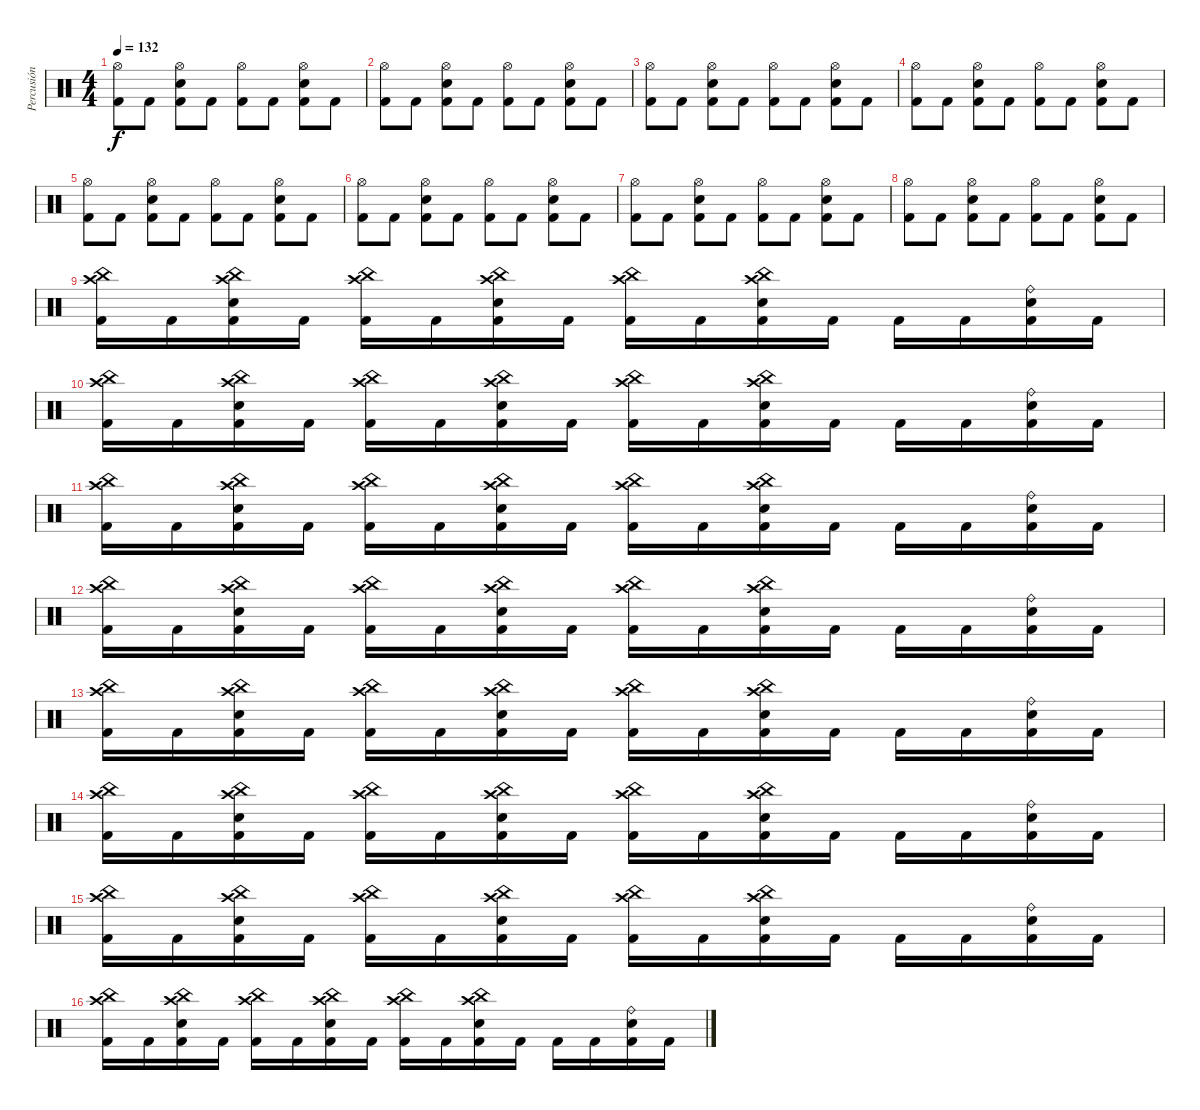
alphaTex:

\track ("Percusión" "Percusión") {instrument percussion}
\staff {score}
\articulation defaults
\ts (4 4)
\tempo 132
\clef neutral
\ks c
("Hi-Hat (open)" "Kick (hit) 2").8{dy f} "Kick (hit) 2".8 ("Hi-Hat (open)" "Electric Snare (hit)" "Kick (hit) 2").8 "Kick (hit) 2".8 ("Hi-Hat (open)" "Kick (hit) 2").8 "Kick (hit) 2".8 ("Hi-Hat (open)" "Electric Snare (hit)" "Kick (hit) 2").8 "Kick (hit) 2".8 |
("Hi-Hat (open)" "Kick (hit) 2").8 "Kick (hit) 2".8 ("Hi-Hat (open)" "Electric Snare (hit)" "Kick (hit) 2").8 "Kick (hit) 2".8 ("Hi-Hat (open)" "Kick (hit) 2").8 "Kick (hit) 2".8 ("Hi-Hat (open)" "Electric Snare (hit)" "Kick (hit) 2").8 "Kick (hit) 2".8 |
("Hi-Hat (open)" "Kick (hit) 2").8 "Kick (hit) 2".8 ("Hi-Hat (open)" "Electric Snare (hit)" "Kick (hit) 2").8 "Kick (hit) 2".8 ("Hi-Hat (open)" "Kick (hit) 2").8 "Kick (hit) 2".8 ("Hi-Hat (open)" "Electric Snare (hit)" "Kick (hit) 2").8 "Kick (hit) 2".8 |
("Hi-Hat (open)" "Kick (hit) 2").8 "Kick (hit) 2".8 ("Hi-Hat (open)" "Electric Snare (hit)" "Kick (hit) 2").8 "Kick (hit) 2".8 ("Hi-Hat (open)" "Kick (hit) 2").8 "Kick (hit) 2".8 ("Hi-Hat (open)" "Electric Snare (hit)" "Kick (hit) 2").8 "Kick (hit) 2".8 |
("Hi-Hat (open)" "Kick (hit) 2").8 "Kick (hit) 2".8 ("Hi-Hat (open)" "Electric Snare (hit)" "Kick (hit) 2").8 "Kick (hit) 2".8 ("Hi-Hat (open)" "Kick (hit) 2").8 "Kick (hit) 2".8 ("Hi-Hat (open)" "Electric Snare (hit)" "Kick (hit) 2").8 "Kick (hit) 2".8 |
("Hi-Hat (open)" "Kick (hit) 2").8 "Kick (hit) 2".8 ("Hi-Hat (open)" "Electric Snare (hit)" "Kick (hit) 2").8 "Kick (hit) 2".8 ("Hi-Hat (open)" "Kick (hit) 2").8 "Kick (hit) 2".8 ("Hi-Hat (open)" "Electric Snare (hit)" "Kick (hit) 2").8 "Kick (hit) 2".8 |
("Hi-Hat (open)" "Kick (hit) 2").8 "Kick (hit) 2".8 ("Hi-Hat (open)" "Electric Snare (hit)" "Kick (hit) 2").8 "Kick (hit) 2".8 ("Hi-Hat (open)" "Kick (hit) 2").8 "Kick (hit) 2".8 ("Hi-Hat (open)" "Electric Snare (hit)" "Kick (hit) 2").8 "Kick (hit) 2".8 |
("Hi-Hat (open)" "Kick (hit) 2").8 "Kick (hit) 2".8 ("Hi-Hat (open)" "Electric Snare (hit)" "Kick (hit) 2").8 "Kick (hit) 2".8 ("Hi-Hat (open)" "Kick (hit) 2").8 "Kick (hit) 2".8 ("Hi-Hat (open)" "Electric Snare (hit)" "Kick (hit) 2").8 "Kick (hit) 2".8 |
("China (hit)" "Crash high (hit)" "Kick (hit) 2").16 "Kick (hit) 2".16 ("Crash high (hit)" "China (hit)" "Electric Snare (hit)" "Kick (hit) 2").16 "Kick (hit) 2".16 ("Crash high (hit)" "China (hit)" "Kick (hit) 2").16 "Kick (hit) 2".16 ("Crash high (hit)" "China (hit)" "Electric Snare (hit)" "Kick (hit) 2").16 "Kick (hit) 2".16 ("Crash high (hit)" "China (hit)" "Kick (hit) 2").16 "Kick (hit) 2".16 ("Crash high (hit)" "China (hit)" "Electric Snare (hit)" "Kick (hit) 2").16 "Kick (hit) 2".16 "Kick (hit) 2".16 "Kick (hit) 2".16 ("Ride (bell)" "Electric Snare (hit)" "Kick (hit) 2").16 "Kick (hit) 2".16 |
("Crash high (hit)" "China (hit)" "Kick (hit) 2").16 "Kick (hit) 2".16 ("Crash high (hit)" "China (hit)" "Electric Snare (hit)" "Kick (hit) 2").16 "Kick (hit) 2".16 ("Crash high (hit)" "China (hit)" "Kick (hit) 2").16 "Kick (hit) 2".16 ("Crash high (hit)" "China (hit)" "Electric Snare (hit)" "Kick (hit) 2").16 "Kick (hit) 2".16 ("Crash high (hit)" "China (hit)" "Kick (hit) 2").16 "Kick (hit) 2".16 ("Crash high (hit)" "China (hit)" "Electric Snare (hit)" "Kick (hit) 2").16 "Kick (hit) 2".16 "Kick (hit) 2".16 "Kick (hit) 2".16 ("Ride (bell)" "Electric Snare (hit)" "Kick (hit) 2").16 "Kick (hit) 2".16 |
("Crash high (hit)" "China (hit)" "Kick (hit) 2").16 "Kick (hit) 2".16 ("Crash high (hit)" "China (hit)" "Electric Snare (hit)" "Kick (hit) 2").16 "Kick (hit) 2".16 ("Crash high (hit)" "China (hit)" "Kick (hit) 2").16 "Kick (hit) 2".16 ("Crash high (hit)" "China (hit)" "Electric Snare (hit)" "Kick (hit) 2").16 "Kick (hit) 2".16 ("Crash high (hit)" "China (hit)" "Kick (hit) 2").16 "Kick (hit) 2".16 ("Crash high (hit)" "China (hit)" "Electric Snare (hit)" "Kick (hit) 2").16 "Kick (hit) 2".16 "Kick (hit) 2".16 "Kick (hit) 2".16 ("Ride (bell)" "Electric Snare (hit)" "Kick (hit) 2").16 "Kick (hit) 2".16 |
("Crash high (hit)" "China (hit)" "Kick (hit) 2").16 "Kick (hit) 2".16 ("Crash high (hit)" "China (hit)" "Electric Snare (hit)" "Kick (hit) 2").16 "Kick (hit) 2".16 ("Crash high (hit)" "China (hit)" "Kick (hit) 2").16 "Kick (hit) 2".16 ("Crash high (hit)" "China (hit)" "Electric Snare (hit)" "Kick (hit) 2").16 "Kick (hit) 2".16 ("Crash high (hit)" "China (hit)" "Kick (hit) 2").16 "Kick (hit) 2".16 ("Crash high (hit)" "China (hit)" "Electric Snare (hit)" "Kick (hit) 2").16 "Kick (hit) 2".16 "Kick (hit) 2".16 "Kick (hit) 2".16 ("Ride (bell)" "Electric Snare (hit)" "Kick (hit) 2").16 "Kick (hit) 2".16 |
("Crash high (hit)" "China (hit)" "Kick (hit) 2").16 "Kick (hit) 2".16 ("Crash high (hit)" "China (hit)" "Electric Snare (hit)" "Kick (hit) 2").16 "Kick (hit) 2".16 ("Crash high (hit)" "China (hit)" "Kick (hit) 2").16 "Kick (hit) 2".16 ("Crash high (hit)" "China (hit)" "Electric Snare (hit)" "Kick (hit) 2").16 "Kick (hit) 2".16 ("Crash high (hit)" "China (hit)" "Kick (hit) 2").16 "Kick (hit) 2".16 ("Crash high (hit)" "China (hit)" "Electric Snare (hit)" "Kick (hit) 2").16 "Kick (hit) 2".16 "Kick (hit) 2".16 "Kick (hit) 2".16 ("Ride (bell)" "Electric Snare (hit)" "Kick (hit) 2").16 "Kick (hit) 2".16 |
("Crash high (hit)" "China (hit)" "Kick (hit) 2").16 "Kick (hit) 2".16 ("Crash high (hit)" "China (hit)" "Electric Snare (hit)" "Kick (hit) 2").16 "Kick (hit) 2".16 ("Crash high (hit)" "China (hit)" "Kick (hit) 2").16 "Kick (hit) 2".16 ("Crash high (hit)" "China (hit)" "Electric Snare (hit)" "Kick (hit) 2").16 "Kick (hit) 2".16 ("Crash high (hit)" "China (hit)" "Kick (hit) 2").16 "Kick (hit) 2".16 ("Crash high (hit)" "China (hit)" "Electric Snare (hit)" "Kick (hit) 2").16 "Kick (hit) 2".16 "Kick (hit) 2".16 "Kick (hit) 2".16 ("Ride (bell)" "Electric Snare (hit)" "Kick (hit) 2").16 "Kick (hit) 2".16 |
("Crash high (hit)" "China (hit)" "Kick (hit) 2").16 "Kick (hit) 2".16 ("Crash high (hit)" "China (hit)" "Electric Snare (hit)" "Kick (hit) 2").16 "Kick (hit) 2".16 ("Crash high (hit)" "China (hit)" "Kick (hit) 2").16 "Kick (hit) 2".16 ("Crash high (hit)" "China (hit)" "Electric Snare (hit)" "Kick (hit) 2").16 "Kick (hit) 2".16 ("Crash high (hit)" "China (hit)" "Kick (hit) 2").16 "Kick (hit) 2".16 ("Crash high (hit)" "China (hit)" "Electric Snare (hit)" "Kick (hit) 2").16 "Kick (hit) 2".16 "Kick (hit) 2".16 "Kick (hit) 2".16 ("Ride (bell)" "Electric Snare (hit)" "Kick (hit) 2").16 "Kick (hit) 2".16 |
("Crash high (hit)" "China (hit)" "Kick (hit) 2").16 "Kick (hit) 2".16 ("Crash high (hit)" "China (hit)" "Electric Snare (hit)" "Kick (hit) 2").16 "Kick (hit) 2".16 ("Crash high (hit)" "China (hit)" "Kick (hit) 2").16 "Kick (hit) 2".16 ("Crash high (hit)" "China (hit)" "Electric Snare (hit)" "Kick (hit) 2").16 "Kick (hit) 2".16 ("Crash high (hit)" "China (hit)" "Kick (hit) 2").16 "Kick (hit) 2".16 ("Crash high (hit)" "China (hit)" "Electric Snare (hit)" "Kick (hit) 2").16 "Kick (hit) 2".16 "Kick (hit) 2".16 "Kick (hit) 2".16 ("Ride (bell)" "Electric Snare (hit)" "Kick (hit) 2").16 "Kick (hit) 2".16
